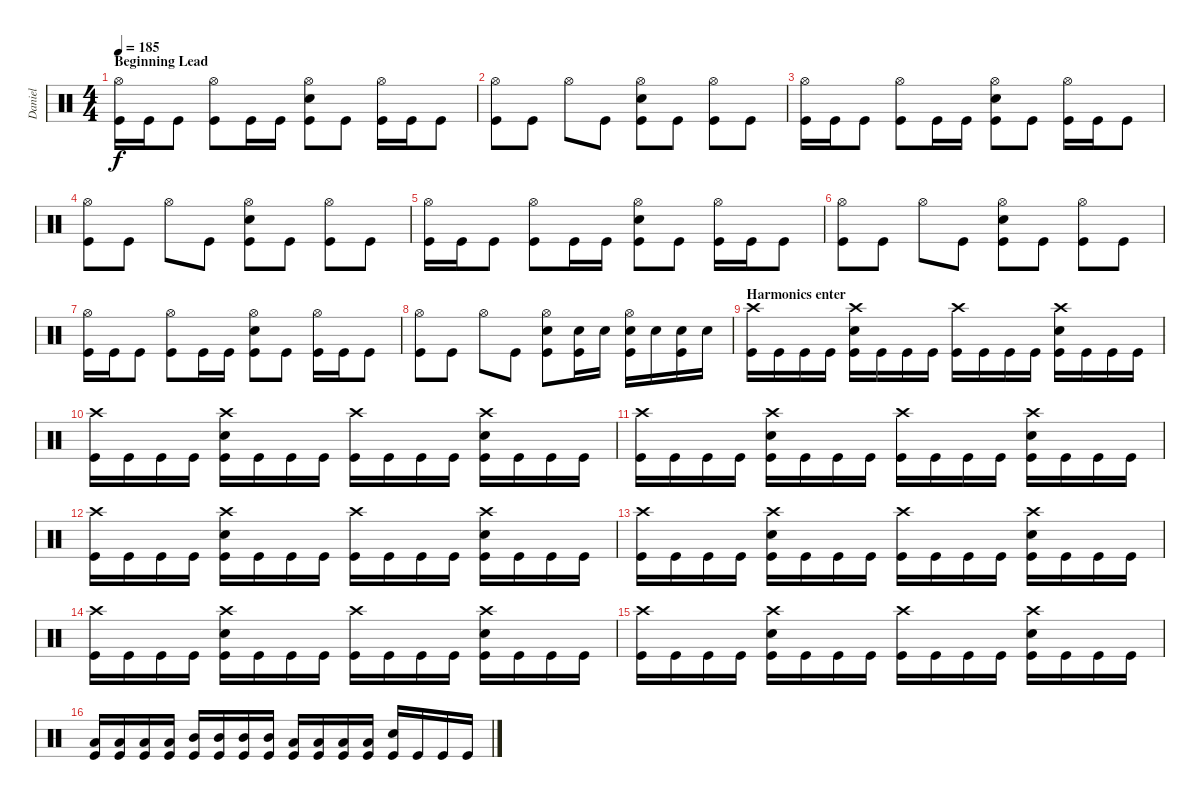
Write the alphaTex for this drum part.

\track ("Daniel" "Daniel") {instrument percussion}
\staff {score}
\articulation defaults
\ts (4 4)
\section ("" "Beginning Lead")
\tempo 185
\clef neutral
\ks c
("Hi-Hat (open)" "Kick (hit)").16{dy f} "Kick (hit)".16 "Kick (hit)".8 ("Hi-Hat (open)" "Kick (hit)").8 "Kick (hit)".16 "Kick (hit)".16 ("Hi-Hat (open)" "Snare (hit) 2" "Kick (hit)").8 "Kick (hit)".8 ("Hi-Hat (open)" "Kick (hit)").16 "Kick (hit)".16 "Kick (hit)".8 |
("Hi-Hat (open)" "Kick (hit)").8 "Kick (hit)".8 "Hi-Hat (open)".8 "Kick (hit)".8 ("Hi-Hat (open)" "Snare (hit) 2" "Kick (hit)").8 "Kick (hit)".8 ("Hi-Hat (open)" "Kick (hit)").8 "Kick (hit)".8 |
("Hi-Hat (open)" "Kick (hit)").16 "Kick (hit)".16 "Kick (hit)".8 ("Hi-Hat (open)" "Kick (hit)").8 "Kick (hit)".16 "Kick (hit)".16 ("Hi-Hat (open)" "Snare (hit) 2" "Kick (hit)").8 "Kick (hit)".8 ("Hi-Hat (open)" "Kick (hit)").16 "Kick (hit)".16 "Kick (hit)".8 |
("Hi-Hat (open)" "Kick (hit)").8 "Kick (hit)".8 "Hi-Hat (open)".8 "Kick (hit)".8 ("Hi-Hat (open)" "Snare (hit) 2" "Kick (hit)").8 "Kick (hit)".8 ("Hi-Hat (open)" "Kick (hit)").8 "Kick (hit)".8 |
("Hi-Hat (open)" "Kick (hit)").16 "Kick (hit)".16 "Kick (hit)".8 ("Hi-Hat (open)" "Kick (hit)").8 "Kick (hit)".16 "Kick (hit)".16 ("Hi-Hat (open)" "Snare (hit) 2" "Kick (hit)").8 "Kick (hit)".8 ("Hi-Hat (open)" "Kick (hit)").16 "Kick (hit)".16 "Kick (hit)".8 |
("Hi-Hat (open)" "Kick (hit)").8 "Kick (hit)".8 "Hi-Hat (open)".8 "Kick (hit)".8 ("Hi-Hat (open)" "Snare (hit) 2" "Kick (hit)").8 "Kick (hit)".8 ("Hi-Hat (open)" "Kick (hit)").8 "Kick (hit)".8 |
("Hi-Hat (open)" "Kick (hit)").16 "Kick (hit)".16 "Kick (hit)".8 ("Hi-Hat (open)" "Kick (hit)").8 "Kick (hit)".16 "Kick (hit)".16 ("Hi-Hat (open)" "Snare (hit) 2" "Kick (hit)").8 "Kick (hit)".8 ("Hi-Hat (open)" "Kick (hit)").16 "Kick (hit)".16 "Kick (hit)".8 |
("Hi-Hat (open)" "Kick (hit)").8 "Kick (hit)".8 "Hi-Hat (open)".8 "Kick (hit)".8 ("Hi-Hat (open)" "Snare (hit) 2" "Kick (hit)").8 ("Snare (hit) 2" "Kick (hit)").16 "Snare (hit) 2".16 ("Hi-Hat (open)" "Snare (hit) 2" "Kick (hit)").16 "Snare (hit) 2".16 ("Snare (hit) 2" "Kick (hit)").16 "Snare (hit) 2".16 |
\section ("" "Harmonics enter")
("Crash high (hit)" "Kick (hit)").16 "Kick (hit)".16 "Kick (hit)".16 "Kick (hit)".16 ("Crash high (hit)" "Snare (hit) 2" "Kick (hit)").16 "Kick (hit)".16 "Kick (hit)".16 "Kick (hit)".16 ("Crash high (hit)" "Kick (hit)").16 "Kick (hit)".16 "Kick (hit)".16 "Kick (hit)".16 ("Crash high (hit)" "Snare (hit) 2" "Kick (hit)").16 "Kick (hit)".16 "Kick (hit)".16 "Kick (hit)".16 |
("Crash high (hit)" "Kick (hit)").16 "Kick (hit)".16 "Kick (hit)".16 "Kick (hit)".16 ("Crash high (hit)" "Snare (hit) 2" "Kick (hit)").16 "Kick (hit)".16 "Kick (hit)".16 "Kick (hit)".16 ("Crash high (hit)" "Kick (hit)").16 "Kick (hit)".16 "Kick (hit)".16 "Kick (hit)".16 ("Crash high (hit)" "Snare (hit) 2" "Kick (hit)").16 "Kick (hit)".16 "Kick (hit)".16 "Kick (hit)".16 |
("Crash high (hit)" "Kick (hit)").16 "Kick (hit)".16 "Kick (hit)".16 "Kick (hit)".16 ("Crash high (hit)" "Snare (hit) 2" "Kick (hit)").16 "Kick (hit)".16 "Kick (hit)".16 "Kick (hit)".16 ("Crash high (hit)" "Kick (hit)").16 "Kick (hit)".16 "Kick (hit)".16 "Kick (hit)".16 ("Crash high (hit)" "Snare (hit) 2" "Kick (hit)").16 "Kick (hit)".16 "Kick (hit)".16 "Kick (hit)".16 |
("Crash high (hit)" "Kick (hit)").16 "Kick (hit)".16 "Kick (hit)".16 "Kick (hit)".16 ("Crash high (hit)" "Snare (hit) 2" "Kick (hit)").16 "Kick (hit)".16 "Kick (hit)".16 "Kick (hit)".16 ("Crash high (hit)" "Kick (hit)").16 "Kick (hit)".16 "Kick (hit)".16 "Kick (hit)".16 ("Crash high (hit)" "Snare (hit) 2" "Kick (hit)").16 "Kick (hit)".16 "Kick (hit)".16 "Kick (hit)".16 |
("Crash high (hit)" "Kick (hit)").16 "Kick (hit)".16 "Kick (hit)".16 "Kick (hit)".16 ("Crash high (hit)" "Snare (hit) 2" "Kick (hit)").16 "Kick (hit)".16 "Kick (hit)".16 "Kick (hit)".16 ("Crash high (hit)" "Kick (hit)").16 "Kick (hit)".16 "Kick (hit)".16 "Kick (hit)".16 ("Crash high (hit)" "Snare (hit) 2" "Kick (hit)").16 "Kick (hit)".16 "Kick (hit)".16 "Kick (hit)".16 |
("Crash high (hit)" "Kick (hit)").16 "Kick (hit)".16 "Kick (hit)".16 "Kick (hit)".16 ("Crash high (hit)" "Snare (hit) 2" "Kick (hit)").16 "Kick (hit)".16 "Kick (hit)".16 "Kick (hit)".16 ("Crash high (hit)" "Kick (hit)").16 "Kick (hit)".16 "Kick (hit)".16 "Kick (hit)".16 ("Crash high (hit)" "Snare (hit) 2" "Kick (hit)").16 "Kick (hit)".16 "Kick (hit)".16 "Kick (hit)".16 |
("Crash high (hit)" "Kick (hit)").16 "Kick (hit)".16 "Kick (hit)".16 "Kick (hit)".16 ("Crash high (hit)" "Snare (hit) 2" "Kick (hit)").16 "Kick (hit)".16 "Kick (hit)".16 "Kick (hit)".16 ("Crash high (hit)" "Kick (hit)").16 "Kick (hit)".16 "Kick (hit)".16 "Kick (hit)".16 ("Crash high (hit)" "Snare (hit) 2" "Kick (hit)").16 "Kick (hit)".16 "Kick (hit)".16 "Kick (hit)".16 |
("Low Tom (hit)" "Kick (hit)").16 ("Low Tom (hit)" "Kick (hit)").16 ("Low Tom (hit)" "Kick (hit)").16 ("Low Tom (hit)" "Kick (hit)").16 ("Mid Tom (hit)" "Kick (hit)").16 ("Mid Tom (hit)" "Kick (hit)").16 ("Mid Tom (hit)" "Kick (hit)").16 ("Mid Tom (hit)" "Kick (hit)").16 ("Low Tom (hit)" "Kick (hit)").16 ("Low Tom (hit)" "Kick (hit)").16 ("Low Tom (hit)" "Kick (hit)").16 ("Low Tom (hit)" "Kick (hit)").16 ("Snare (hit) 2" "Kick (hit)").16 "Kick (hit)".16 "Kick (hit)".16 "Kick (hit)".16
